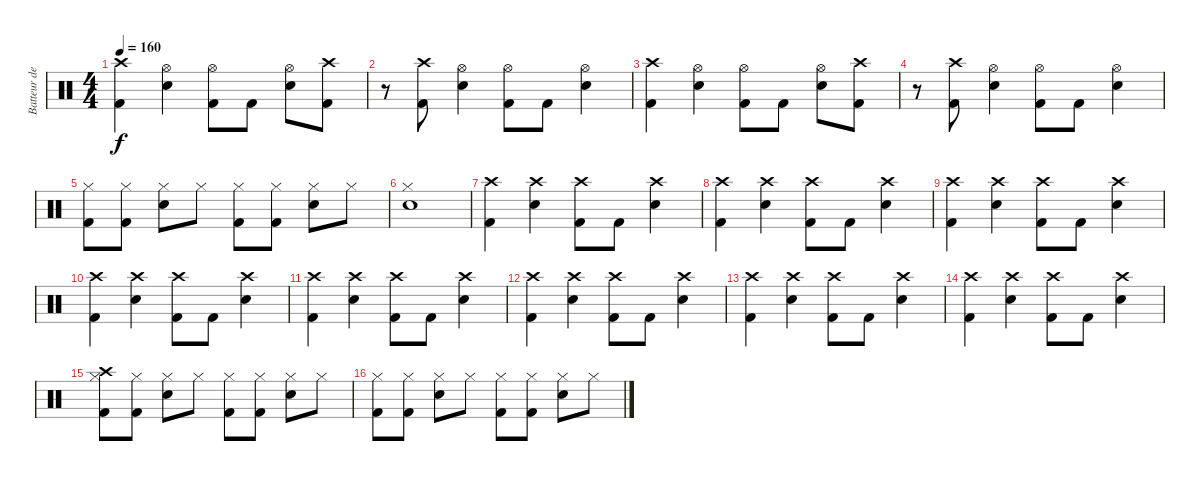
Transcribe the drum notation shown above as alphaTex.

\track ("Batteur de G.C" "Batteur de") {instrument percussion}
\staff {score}
\articulation defaults
\ts (4 4)
\tempo 160
\clef neutral
\ks c
("Crash high (hit)" "Kick (hit) 2").4{dy f} ("Hi-Hat (open)" "Electric Snare (hit)").4 ("Hi-Hat (open)" "Kick (hit) 2").8 "Kick (hit) 2".8 ("Hi-Hat (open)" "Electric Snare (hit)").8 ("Crash high (hit)" "Kick (hit) 2").8 |
r.8 ("Crash high (hit)" "Kick (hit) 2").8 ("Hi-Hat (open)" "Electric Snare (hit)").4 ("Hi-Hat (open)" "Kick (hit) 2").8 "Kick (hit) 2".8 ("Hi-Hat (open)" "Electric Snare (hit)").4 |
("Crash high (hit)" "Kick (hit) 2").4 ("Hi-Hat (open)" "Electric Snare (hit)").4 ("Hi-Hat (open)" "Kick (hit) 2").8 "Kick (hit) 2".8 ("Hi-Hat (open)" "Electric Snare (hit)").8 ("Crash high (hit)" "Kick (hit) 2").8 |
r.8 ("Crash high (hit)" "Kick (hit) 2").8 ("Hi-Hat (open)" "Electric Snare (hit)").4 ("Hi-Hat (open)" "Kick (hit) 2").8 "Kick (hit) 2".8 ("Hi-Hat (open)" "Electric Snare (hit)").4 |
("Hi-Hat (closed)" "Kick (hit) 2").8 ("Hi-Hat (closed)" "Kick (hit) 2").8 ("Hi-Hat (closed)" "Electric Snare (hit)").8 "Hi-Hat (closed)".8 ("Hi-Hat (closed)" "Kick (hit) 2").8 ("Hi-Hat (closed)" "Kick (hit) 2").8 ("Hi-Hat (closed)" "Electric Snare (hit)").8 "Hi-Hat (closed)".8 |
("Hi-Hat (closed)" "Electric Snare (hit)").1 |
("Crash high (hit)" "Kick (hit) 2").4 ("Crash high (hit)" "Electric Snare (hit)").4 ("Crash high (hit)" "Kick (hit) 2").8 "Kick (hit) 2".8 ("Crash high (hit)" "Electric Snare (hit)").4 |
("Crash high (hit)" "Kick (hit) 2").4 ("Crash high (hit)" "Electric Snare (hit)").4 ("Crash high (hit)" "Kick (hit) 2").8 "Kick (hit) 2".8 ("Crash high (hit)" "Electric Snare (hit)").4 |
("Crash high (hit)" "Kick (hit) 2").4 ("Crash high (hit)" "Electric Snare (hit)").4 ("Crash high (hit)" "Kick (hit) 2").8 "Kick (hit) 2".8 ("Crash high (hit)" "Electric Snare (hit)").4 |
("Crash high (hit)" "Kick (hit) 2").4 ("Crash high (hit)" "Electric Snare (hit)").4 ("Crash high (hit)" "Kick (hit) 2").8 "Kick (hit) 2".8 ("Crash high (hit)" "Electric Snare (hit)").4 |
("Crash high (hit)" "Kick (hit) 2").4 ("Crash high (hit)" "Electric Snare (hit)").4 ("Crash high (hit)" "Kick (hit) 2").8 "Kick (hit) 2".8 ("Crash high (hit)" "Electric Snare (hit)").4 |
("Crash high (hit)" "Kick (hit) 2").4 ("Crash high (hit)" "Electric Snare (hit)").4 ("Crash high (hit)" "Kick (hit) 2").8 "Kick (hit) 2".8 ("Crash high (hit)" "Electric Snare (hit)").4 |
("Crash high (hit)" "Kick (hit) 2").4 ("Crash high (hit)" "Electric Snare (hit)").4 ("Crash high (hit)" "Kick (hit) 2").8 "Kick (hit) 2".8 ("Crash high (hit)" "Electric Snare (hit)").4 |
("Crash high (hit)" "Kick (hit) 2").4 ("Crash high (hit)" "Electric Snare (hit)").4 ("Crash high (hit)" "Kick (hit) 2").8 "Kick (hit) 2".8 ("Crash high (hit)" "Electric Snare (hit)").4 |
("Crash high (hit)" "Hi-Hat (closed)" "Kick (hit) 2").8 ("Hi-Hat (closed)" "Kick (hit) 2").8 ("Hi-Hat (closed)" "Electric Snare (hit)").8 "Hi-Hat (closed)".8 ("Hi-Hat (closed)" "Kick (hit) 2").8 ("Hi-Hat (closed)" "Kick (hit) 2").8 ("Hi-Hat (closed)" "Electric Snare (hit)").8 "Hi-Hat (closed)".8 |
("Hi-Hat (closed)" "Kick (hit) 2").8 ("Hi-Hat (closed)" "Kick (hit) 2").8 ("Hi-Hat (closed)" "Electric Snare (hit)").8 "Hi-Hat (closed)".8 ("Hi-Hat (closed)" "Kick (hit) 2").8 ("Hi-Hat (closed)" "Kick (hit) 2").8 ("Hi-Hat (closed)" "Electric Snare (hit)").8 "Hi-Hat (closed)".8
